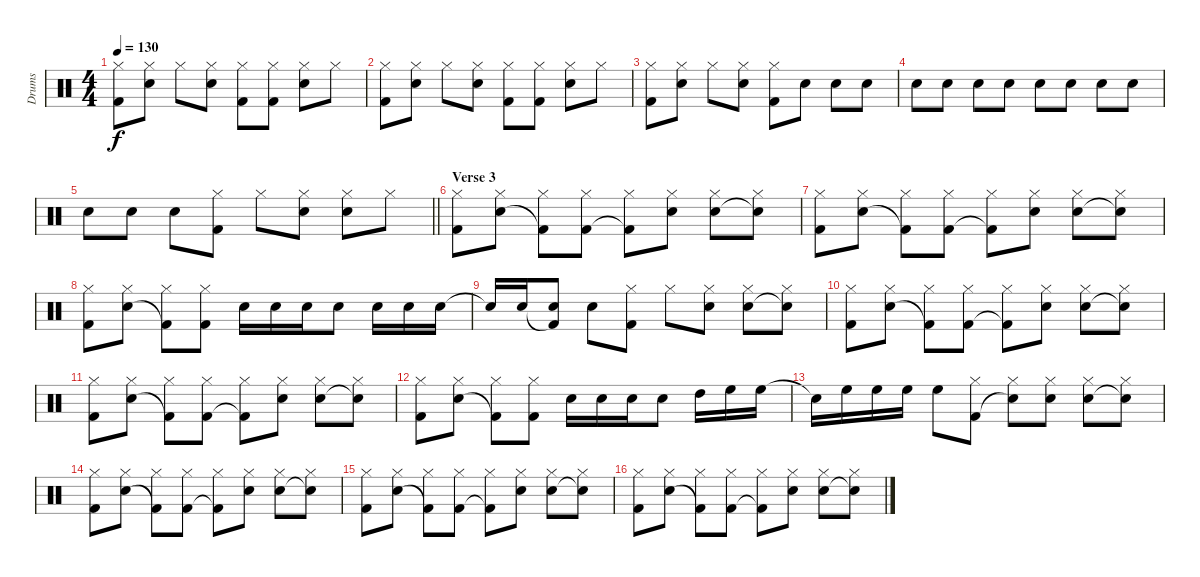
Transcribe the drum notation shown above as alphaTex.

\track ("Drums" "Drums") {instrument percussion}
\staff {score}
\articulation defaults
\ts (4 4)
\tempo 130
\clef neutral
\ks c
("Kick (hit) 2" "Hi-Hat (closed)").8{dy f} ("Hi-Hat (closed)" "Snare (hit) 2").8 "Hi-Hat (closed)".8 ("Hi-Hat (closed)" "Snare (hit) 2").8 ("Kick (hit) 2" "Hi-Hat (closed)").8 ("Kick (hit) 2" "Hi-Hat (closed)").8 ("Hi-Hat (closed)" "Snare (hit) 2").8 "Hi-Hat (closed)".8 |
("Kick (hit) 2" "Hi-Hat (closed)").8 ("Hi-Hat (closed)" "Snare (hit) 2").8 "Hi-Hat (closed)".8 ("Hi-Hat (closed)" "Snare (hit) 2").8 ("Kick (hit) 2" "Hi-Hat (closed)").8 ("Kick (hit) 2" "Hi-Hat (closed)").8 ("Hi-Hat (closed)" "Snare (hit) 2").8 "Hi-Hat (closed)".8 |
("Kick (hit) 2" "Hi-Hat (closed)").8 ("Hi-Hat (closed)" "Snare (hit) 2").8 "Hi-Hat (closed)".8 ("Hi-Hat (closed)" "Snare (hit) 2").8 ("Kick (hit) 2" "Hi-Hat (closed)").8 "Snare (hit) 2".8 "Snare (hit) 2".8 "Snare (hit) 2".8 |
"Snare (hit) 2".8 "Snare (hit) 2".8 "Snare (hit) 2".8 "Snare (hit) 2".8 "Snare (hit) 2".8 "Snare (hit) 2".8 "Snare (hit) 2".8 "Snare (hit) 2".8 |
\barLineRight lightlight "Snare (hit) 2".8 "Snare (hit) 2".8 "Snare (hit) 2".8
("Kick (hit) 2" "Hi-Hat (closed)").8 "Hi-Hat (closed)".8 ("Snare (hit) 2" "Hi-Hat (closed)").8 ("Snare (hit) 2" "Hi-Hat (closed)").8 "Hi-Hat (closed)".8 |
\section ("" "Verse 3")
("Kick (hit) 2" "Hi-Hat (closed)").8 ("Snare (hit) 2" "Hi-Hat (closed)").8 ("Kick (hit) 2"{t} "Hi-Hat (closed)").8 ("Kick (hit) 2" "Hi-Hat (closed)").8 ("Kick (hit) 2"{t} "Hi-Hat (closed)").8 ("Snare (hit) 2" "Hi-Hat (closed)").8 ("Snare (hit) 2" "Hi-Hat (closed)").8 ("Snare (hit) 2"{t} "Hi-Hat (closed)").8 |
("Kick (hit) 2" "Hi-Hat (closed)").8 ("Snare (hit) 2" "Hi-Hat (closed)").8 ("Kick (hit) 2"{t} "Hi-Hat (closed)").8 ("Kick (hit) 2" "Hi-Hat (closed)").8 ("Kick (hit) 2"{t} "Hi-Hat (closed)").8 ("Snare (hit) 2" "Hi-Hat (closed)").8 ("Snare (hit) 2" "Hi-Hat (closed)").8 ("Snare (hit) 2"{t} "Hi-Hat (closed)").8 |
("Kick (hit) 2" "Hi-Hat (closed)").8 ("Snare (hit) 2" "Hi-Hat (closed)").8 ("Kick (hit) 2"{t} "Hi-Hat (closed)").8 ("Kick (hit) 2" "Hi-Hat (closed)").8 "Snare (hit) 2".16 "Snare (hit) 2".16 "Snare (hit) 2".16 "Snare (hit) 2".8 "Snare (hit) 2".16 "Snare (hit) 2".16 "Snare (hit) 2".16 |
"Snare (hit)"{t}.16 "Snare (hit) 2".16 ("Kick (hit) 2"{t} "Snare (hit) 2").8 "Snare (hit) 2".8 ("Kick (hit) 2" "Hi-Hat (closed)").8 "Hi-Hat (closed)".8 ("Snare (hit) 2" "Hi-Hat (closed)").8 ("Snare (hit) 2" "Hi-Hat (closed)").8 ("Snare (hit)"{t} "Hi-Hat (closed)").8 |
("Kick (hit) 2" "Hi-Hat (closed)").8 ("Snare (hit) 2" "Hi-Hat (closed)").8 ("Kick (hit) 2"{t} "Hi-Hat (closed)").8 ("Kick (hit) 2" "Hi-Hat (closed)").8 ("Kick (hit) 2"{t} "Hi-Hat (closed)").8 ("Snare (hit) 2" "Hi-Hat (closed)").8 ("Snare (hit) 2" "Hi-Hat (closed)").8 ("Snare (hit) 2"{t} "Hi-Hat (closed)").8 |
("Kick (hit) 2" "Hi-Hat (closed)").8 ("Snare (hit) 2" "Hi-Hat (closed)").8 ("Kick (hit) 2"{t} "Hi-Hat (closed)").8 ("Kick (hit) 2" "Hi-Hat (closed)").8 ("Kick (hit) 2"{t} "Hi-Hat (closed)").8 ("Snare (hit) 2" "Hi-Hat (closed)").8 ("Snare (hit) 2" "Hi-Hat (closed)").8 ("Snare (hit) 2"{t} "Hi-Hat (closed)").8 |
("Kick (hit) 2" "Hi-Hat (closed)").8 ("Snare (hit) 2" "Hi-Hat (closed)").8 ("Kick (hit) 2"{t} "Hi-Hat (closed)").8 ("Kick (hit) 2" "Hi-Hat (closed)").8 "Snare (hit) 2".16 "Snare (hit) 2".16 "Snare (hit) 2".16 "Snare (hit) 2".8 "High Tom (hit)".16 "High Floor Tom (hit)".16 "High Floor Tom (hit)".16 |
"Snare (hit)"{t}.16 "High Floor Tom (hit)".16 "High Floor Tom (hit)".16 "High Floor Tom (hit)".16 "High Floor Tom (hit)".8 ("Kick (hit) 2" "Hi-Hat (closed)").8 ("Snare (hit) 2"{t} "Hi-Hat (closed)").8 ("Snare (hit) 2" "Hi-Hat (closed)").8 ("Snare (hit) 2" "Hi-Hat (closed)").8 ("Snare (hit)"{t} "Hi-Hat (closed)").8 |
("Kick (hit) 2" "Hi-Hat (closed)").8 ("Snare (hit) 2" "Hi-Hat (closed)").8 ("Kick (hit) 2"{t} "Hi-Hat (closed)").8 ("Kick (hit) 2" "Hi-Hat (closed)").8 ("Kick (hit) 2"{t} "Hi-Hat (closed)").8 ("Snare (hit) 2" "Hi-Hat (closed)").8 ("Snare (hit) 2" "Hi-Hat (closed)").8 ("Snare (hit) 2"{t} "Hi-Hat (closed)").8 |
("Kick (hit) 2" "Hi-Hat (closed)").8 ("Snare (hit) 2" "Hi-Hat (closed)").8 ("Kick (hit) 2"{t} "Hi-Hat (closed)").8 ("Kick (hit) 2" "Hi-Hat (closed)").8 ("Kick (hit) 2"{t} "Hi-Hat (closed)").8 ("Snare (hit) 2" "Hi-Hat (closed)").8 ("Snare (hit) 2" "Hi-Hat (closed)").8 ("Snare (hit) 2"{t} "Hi-Hat (closed)").8 |
("Kick (hit) 2" "Hi-Hat (closed)").8 ("Snare (hit) 2" "Hi-Hat (closed)").8 ("Kick (hit) 2"{t} "Hi-Hat (closed)").8 ("Kick (hit) 2" "Hi-Hat (closed)").8 ("Kick (hit) 2"{t} "Hi-Hat (closed)").8 ("Snare (hit) 2" "Hi-Hat (closed)").8 ("Snare (hit) 2" "Hi-Hat (closed)").8 ("Snare (hit) 2"{t} "Hi-Hat (closed)").8
